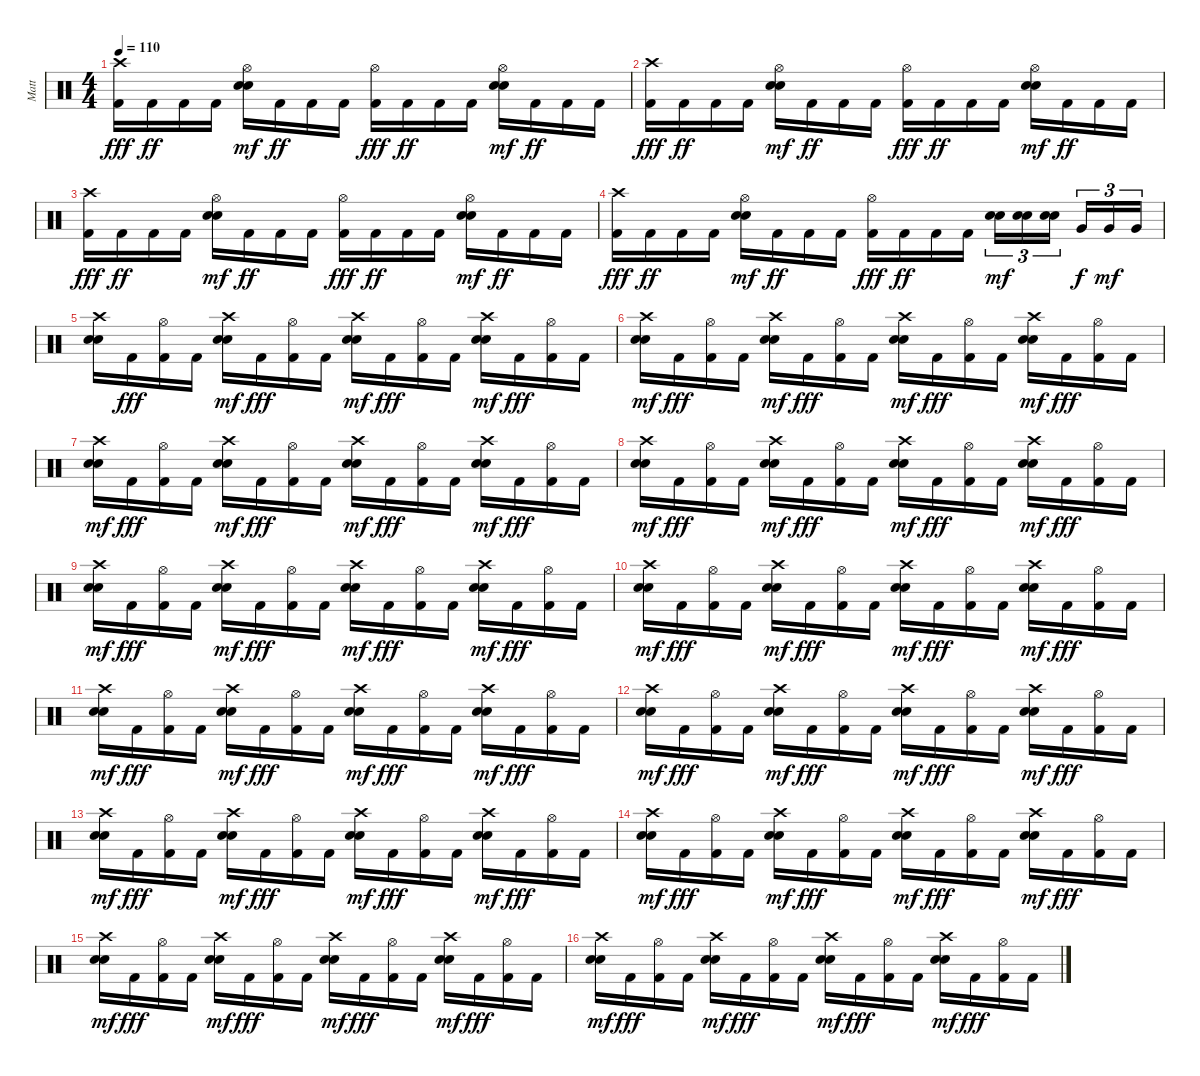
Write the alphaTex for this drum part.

\track ("Matt" "Matt") {instrument percussion}
\staff {score}
\articulation defaults
\ts (4 4)
\tempo 110
\clef neutral
\ks c
("Crash high (hit)" "Kick (hit) 2").16{dy fff} "Kick (hit) 2".16{dy ff} "Kick (hit) 2".16 "Kick (hit) 2".16 ("Hi-Hat (open)" "Electric Snare (hit)" "Snare (hit) 2").16{dy mf} "Kick (hit) 2".16{dy ff} "Kick (hit) 2".16 "Kick (hit) 2".16 ("Hi-Hat (open)" "Kick (hit) 2").16{dy fff} "Kick (hit) 2".16{dy ff} "Kick (hit) 2".16 "Kick (hit) 2".16 ("Hi-Hat (open)" "Electric Snare (hit)" "Snare (hit) 2").16{dy mf} "Kick (hit) 2".16{dy ff} "Kick (hit) 2".16 "Kick (hit) 2".16 |
("Crash high (hit)" "Kick (hit) 2").16{dy fff} "Kick (hit) 2".16{dy ff} "Kick (hit) 2".16 "Kick (hit) 2".16 ("Hi-Hat (open)" "Electric Snare (hit)" "Snare (hit) 2").16{dy mf} "Kick (hit) 2".16{dy ff} "Kick (hit) 2".16 "Kick (hit) 2".16 ("Hi-Hat (open)" "Kick (hit) 2").16{dy fff} "Kick (hit) 2".16{dy ff} "Kick (hit) 2".16 "Kick (hit) 2".16 ("Hi-Hat (open)" "Electric Snare (hit)" "Snare (hit) 2").16{dy mf} "Kick (hit) 2".16{dy ff} "Kick (hit) 2".16 "Kick (hit) 2".16 |
("Crash high (hit)" "Kick (hit) 2").16{dy fff} "Kick (hit) 2".16{dy ff} "Kick (hit) 2".16 "Kick (hit) 2".16 ("Hi-Hat (open)" "Electric Snare (hit)" "Snare (hit) 2").16{dy mf} "Kick (hit) 2".16{dy ff} "Kick (hit) 2".16 "Kick (hit) 2".16 ("Hi-Hat (open)" "Kick (hit) 2").16{dy fff} "Kick (hit) 2".16{dy ff} "Kick (hit) 2".16 "Kick (hit) 2".16 ("Hi-Hat (open)" "Electric Snare (hit)" "Snare (hit) 2").16{dy mf} "Kick (hit) 2".16{dy ff} "Kick (hit) 2".16 "Kick (hit) 2".16 |
("Crash high (hit)" "Kick (hit) 2").16{dy fff} "Kick (hit) 2".16{dy ff} "Kick (hit) 2".16 "Kick (hit) 2".16 ("Hi-Hat (open)" "Electric Snare (hit)" "Snare (hit) 2").16{dy mf} "Kick (hit) 2".16{dy ff} "Kick (hit) 2".16 "Kick (hit) 2".16 ("Hi-Hat (open)" "Kick (hit) 2").16{dy fff} "Kick (hit) 2".16{dy ff} "Kick (hit) 2".16 "Kick (hit) 2".16 ("Electric Snare (hit)" "Snare (hit) 2").16{tu (3 2) dy mf} ("Electric Snare (hit)" "Snare (hit) 2").16{tu (3 2)} ("Electric Snare (hit)" "Snare (hit) 2").16{tu (3 2)} "Very Low Tom (hit)".16{tu (3 2) dy f} "Very Low Tom (hit)".16{tu (3 2) dy mf} "Very Low Tom (hit)".16{tu (3 2)} |
("Crash high (hit)" "Electric Snare (hit)" "Snare (hit) 2").16 "Kick (hit) 2".16{dy fff} ("Hi-Hat (open)" "Kick (hit) 2").16 "Kick (hit) 2".16 ("Crash high (hit)" "Electric Snare (hit)" "Snare (hit) 2").16{dy mf} "Kick (hit) 2".16{dy fff} ("Hi-Hat (open)" "Kick (hit) 2").16 "Kick (hit) 2".16 ("Crash high (hit)" "Electric Snare (hit)" "Snare (hit) 2").16{dy mf} "Kick (hit) 2".16{dy fff} ("Hi-Hat (open)" "Kick (hit) 2").16 "Kick (hit) 2".16 ("Crash high (hit)" "Electric Snare (hit)" "Snare (hit) 2").16{dy mf} "Kick (hit) 2".16{dy fff} ("Hi-Hat (open)" "Kick (hit) 2").16 "Kick (hit) 2".16 |
("Crash high (hit)" "Electric Snare (hit)" "Snare (hit) 2").16{dy mf} "Kick (hit) 2".16{dy fff} ("Hi-Hat (open)" "Kick (hit) 2").16 "Kick (hit) 2".16 ("Crash high (hit)" "Electric Snare (hit)" "Snare (hit) 2").16{dy mf} "Kick (hit) 2".16{dy fff} ("Hi-Hat (open)" "Kick (hit) 2").16 "Kick (hit) 2".16 ("Crash high (hit)" "Electric Snare (hit)" "Snare (hit) 2").16{dy mf} "Kick (hit) 2".16{dy fff} ("Hi-Hat (open)" "Kick (hit) 2").16 "Kick (hit) 2".16 ("Crash high (hit)" "Electric Snare (hit)" "Snare (hit) 2").16{dy mf} "Kick (hit) 2".16{dy fff} ("Hi-Hat (open)" "Kick (hit) 2").16 "Kick (hit) 2".16 |
("Crash high (hit)" "Electric Snare (hit)" "Snare (hit) 2").16{dy mf} "Kick (hit) 2".16{dy fff} ("Hi-Hat (open)" "Kick (hit) 2").16 "Kick (hit) 2".16 ("Crash high (hit)" "Electric Snare (hit)" "Snare (hit) 2").16{dy mf} "Kick (hit) 2".16{dy fff} ("Hi-Hat (open)" "Kick (hit) 2").16 "Kick (hit) 2".16 ("Crash high (hit)" "Electric Snare (hit)" "Snare (hit) 2").16{dy mf} "Kick (hit) 2".16{dy fff} ("Hi-Hat (open)" "Kick (hit) 2").16 "Kick (hit) 2".16 ("Crash high (hit)" "Electric Snare (hit)" "Snare (hit) 2").16{dy mf} "Kick (hit) 2".16{dy fff} ("Hi-Hat (open)" "Kick (hit) 2").16 "Kick (hit) 2".16 |
("Crash high (hit)" "Electric Snare (hit)" "Snare (hit) 2").16{dy mf} "Kick (hit) 2".16{dy fff} ("Hi-Hat (open)" "Kick (hit) 2").16 "Kick (hit) 2".16 ("Crash high (hit)" "Electric Snare (hit)" "Snare (hit) 2").16{dy mf} "Kick (hit) 2".16{dy fff} ("Hi-Hat (open)" "Kick (hit) 2").16 "Kick (hit) 2".16 ("Crash high (hit)" "Electric Snare (hit)" "Snare (hit) 2").16{dy mf} "Kick (hit) 2".16{dy fff} ("Hi-Hat (open)" "Kick (hit) 2").16 "Kick (hit) 2".16 ("Crash high (hit)" "Electric Snare (hit)" "Snare (hit) 2").16{dy mf} "Kick (hit) 2".16{dy fff} ("Hi-Hat (open)" "Kick (hit) 2").16 "Kick (hit) 2".16 |
("Crash high (hit)" "Electric Snare (hit)" "Snare (hit) 2").16{dy mf} "Kick (hit) 2".16{dy fff} ("Hi-Hat (open)" "Kick (hit) 2").16 "Kick (hit) 2".16 ("Crash high (hit)" "Electric Snare (hit)" "Snare (hit) 2").16{dy mf} "Kick (hit) 2".16{dy fff} ("Hi-Hat (open)" "Kick (hit) 2").16 "Kick (hit) 2".16 ("Crash high (hit)" "Electric Snare (hit)" "Snare (hit) 2").16{dy mf} "Kick (hit) 2".16{dy fff} ("Hi-Hat (open)" "Kick (hit) 2").16 "Kick (hit) 2".16 ("Crash high (hit)" "Electric Snare (hit)" "Snare (hit) 2").16{dy mf} "Kick (hit) 2".16{dy fff} ("Hi-Hat (open)" "Kick (hit) 2").16 "Kick (hit) 2".16 |
("Crash high (hit)" "Electric Snare (hit)" "Snare (hit) 2").16{dy mf} "Kick (hit) 2".16{dy fff} ("Hi-Hat (open)" "Kick (hit) 2").16 "Kick (hit) 2".16 ("Crash high (hit)" "Electric Snare (hit)" "Snare (hit) 2").16{dy mf} "Kick (hit) 2".16{dy fff} ("Hi-Hat (open)" "Kick (hit) 2").16 "Kick (hit) 2".16 ("Crash high (hit)" "Electric Snare (hit)" "Snare (hit) 2").16{dy mf} "Kick (hit) 2".16{dy fff} ("Hi-Hat (open)" "Kick (hit) 2").16 "Kick (hit) 2".16 ("Crash high (hit)" "Electric Snare (hit)" "Snare (hit) 2").16{dy mf} "Kick (hit) 2".16{dy fff} ("Hi-Hat (open)" "Kick (hit) 2").16 "Kick (hit) 2".16 |
("Crash high (hit)" "Electric Snare (hit)" "Snare (hit) 2").16{dy mf} "Kick (hit) 2".16{dy fff} ("Hi-Hat (open)" "Kick (hit) 2").16 "Kick (hit) 2".16 ("Crash high (hit)" "Electric Snare (hit)" "Snare (hit) 2").16{dy mf} "Kick (hit) 2".16{dy fff} ("Hi-Hat (open)" "Kick (hit) 2").16 "Kick (hit) 2".16 ("Crash high (hit)" "Electric Snare (hit)" "Snare (hit) 2").16{dy mf} "Kick (hit) 2".16{dy fff} ("Hi-Hat (open)" "Kick (hit) 2").16 "Kick (hit) 2".16 ("Crash high (hit)" "Electric Snare (hit)" "Snare (hit) 2").16{dy mf} "Kick (hit) 2".16{dy fff} ("Hi-Hat (open)" "Kick (hit) 2").16 "Kick (hit) 2".16 |
("Crash high (hit)" "Electric Snare (hit)" "Snare (hit) 2").16{dy mf} "Kick (hit) 2".16{dy fff} ("Hi-Hat (open)" "Kick (hit) 2").16 "Kick (hit) 2".16 ("Crash high (hit)" "Electric Snare (hit)" "Snare (hit) 2").16{dy mf} "Kick (hit) 2".16{dy fff} ("Hi-Hat (open)" "Kick (hit) 2").16 "Kick (hit) 2".16 ("Crash high (hit)" "Electric Snare (hit)" "Snare (hit) 2").16{dy mf} "Kick (hit) 2".16{dy fff} ("Hi-Hat (open)" "Kick (hit) 2").16 "Kick (hit) 2".16 ("Crash high (hit)" "Electric Snare (hit)" "Snare (hit) 2").16{dy mf} "Kick (hit) 2".16{dy fff} ("Hi-Hat (open)" "Kick (hit) 2").16 "Kick (hit) 2".16 |
("Crash high (hit)" "Electric Snare (hit)" "Snare (hit) 2").16{dy mf} "Kick (hit) 2".16{dy fff} ("Hi-Hat (open)" "Kick (hit) 2").16 "Kick (hit) 2".16 ("Crash high (hit)" "Electric Snare (hit)" "Snare (hit) 2").16{dy mf} "Kick (hit) 2".16{dy fff} ("Hi-Hat (open)" "Kick (hit) 2").16 "Kick (hit) 2".16 ("Crash high (hit)" "Electric Snare (hit)" "Snare (hit) 2").16{dy mf} "Kick (hit) 2".16{dy fff} ("Hi-Hat (open)" "Kick (hit) 2").16 "Kick (hit) 2".16 ("Crash high (hit)" "Electric Snare (hit)" "Snare (hit) 2").16{dy mf} "Kick (hit) 2".16{dy fff} ("Hi-Hat (open)" "Kick (hit) 2").16 "Kick (hit) 2".16 |
("Crash high (hit)" "Electric Snare (hit)" "Snare (hit) 2").16{dy mf} "Kick (hit) 2".16{dy fff} ("Hi-Hat (open)" "Kick (hit) 2").16 "Kick (hit) 2".16 ("Crash high (hit)" "Electric Snare (hit)" "Snare (hit) 2").16{dy mf} "Kick (hit) 2".16{dy fff} ("Hi-Hat (open)" "Kick (hit) 2").16 "Kick (hit) 2".16 ("Crash high (hit)" "Electric Snare (hit)" "Snare (hit) 2").16{dy mf} "Kick (hit) 2".16{dy fff} ("Hi-Hat (open)" "Kick (hit) 2").16 "Kick (hit) 2".16 ("Crash high (hit)" "Electric Snare (hit)" "Snare (hit) 2").16{dy mf} "Kick (hit) 2".16{dy fff} ("Hi-Hat (open)" "Kick (hit) 2").16 "Kick (hit) 2".16 |
("Crash high (hit)" "Electric Snare (hit)" "Snare (hit) 2").16{dy mf} "Kick (hit) 2".16{dy fff} ("Hi-Hat (open)" "Kick (hit) 2").16 "Kick (hit) 2".16 ("Crash high (hit)" "Electric Snare (hit)" "Snare (hit) 2").16{dy mf} "Kick (hit) 2".16{dy fff} ("Hi-Hat (open)" "Kick (hit) 2").16 "Kick (hit) 2".16 ("Crash high (hit)" "Electric Snare (hit)" "Snare (hit) 2").16{dy mf} "Kick (hit) 2".16{dy fff} ("Hi-Hat (open)" "Kick (hit) 2").16 "Kick (hit) 2".16 ("Crash high (hit)" "Electric Snare (hit)" "Snare (hit) 2").16{dy mf} "Kick (hit) 2".16{dy fff} ("Hi-Hat (open)" "Kick (hit) 2").16 "Kick (hit) 2".16 |
("Crash high (hit)" "Electric Snare (hit)" "Snare (hit) 2").16{dy mf} "Kick (hit) 2".16{dy fff} ("Hi-Hat (open)" "Kick (hit) 2").16 "Kick (hit) 2".16 ("Crash high (hit)" "Electric Snare (hit)" "Snare (hit) 2").16{dy mf} "Kick (hit) 2".16{dy fff} ("Hi-Hat (open)" "Kick (hit) 2").16 "Kick (hit) 2".16 ("Crash high (hit)" "Electric Snare (hit)" "Snare (hit) 2").16{dy mf} "Kick (hit) 2".16{dy fff} ("Hi-Hat (open)" "Kick (hit) 2").16 "Kick (hit) 2".16 ("Crash high (hit)" "Electric Snare (hit)" "Snare (hit) 2").16{dy mf} "Kick (hit) 2".16{dy fff} ("Hi-Hat (open)" "Kick (hit) 2").16 "Kick (hit) 2".16
